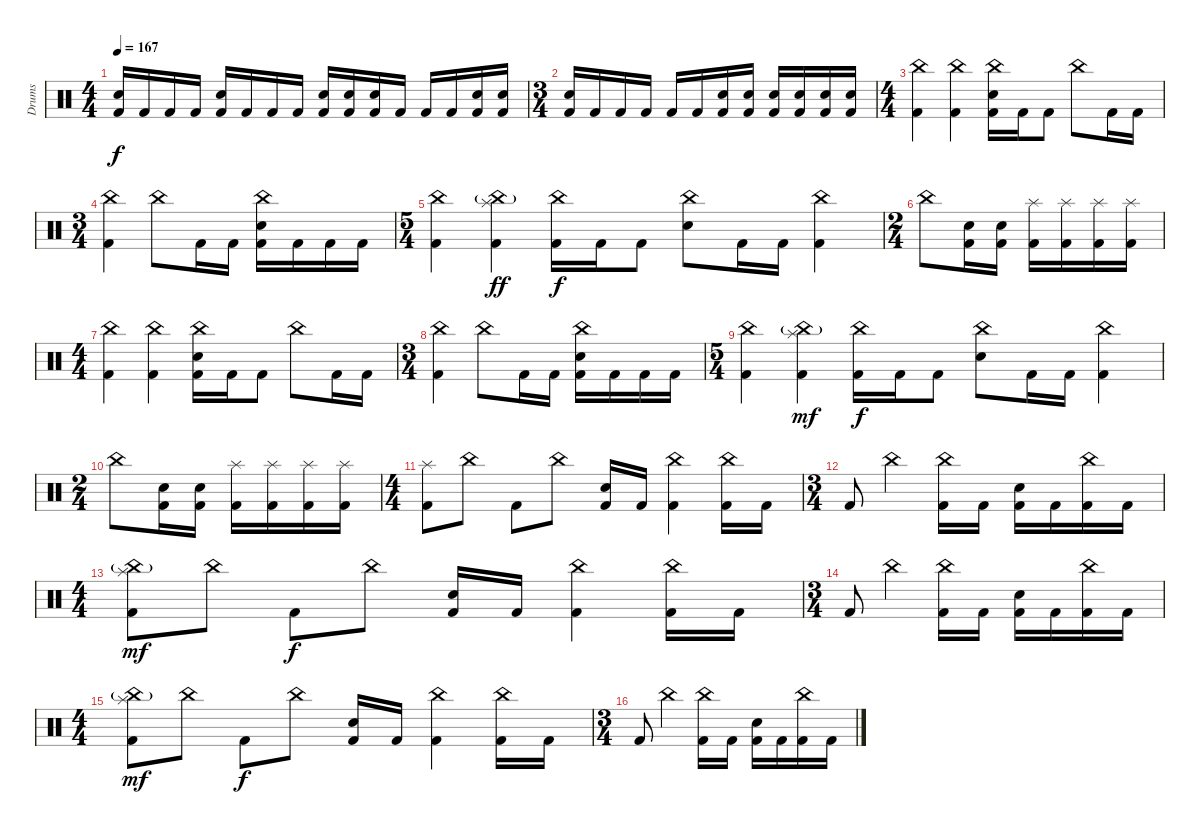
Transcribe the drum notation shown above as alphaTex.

\track ("Drums" "Drums") {instrument percussion}
\staff {score}
\articulation defaults
\ts (4 4)
\tempo 167
\clef neutral
\ks c
("Kick (hit) 2" "Electric Snare (hit)").16{dy f} "Kick (hit) 2".16 "Kick (hit) 2".16 "Kick (hit) 2".16 ("Kick (hit) 2" "Electric Snare (hit)").16 "Kick (hit) 2".16 "Kick (hit) 2".16 "Kick (hit) 2".16 ("Kick (hit) 2" "Electric Snare (hit)").16 ("Kick (hit) 2" "Electric Snare (hit)").16 ("Kick (hit) 2" "Electric Snare (hit)").16 "Kick (hit) 2".16 "Kick (hit) 2".16 "Kick (hit) 2".16 ("Kick (hit) 2" "Electric Snare (hit)").16 ("Kick (hit) 2" "Electric Snare (hit)").16 |
\ts (3 4)
("Kick (hit) 2" "Electric Snare (hit)").16 "Kick (hit) 2".16 "Kick (hit) 2".16 "Kick (hit) 2".16 "Kick (hit) 2".16 "Kick (hit) 2".16 ("Kick (hit) 2" "Electric Snare (hit)").16 ("Kick (hit) 2" "Electric Snare (hit)").16 ("Kick (hit) 2" "Electric Snare (hit)").16 ("Kick (hit) 2" "Electric Snare (hit)").16 ("Kick (hit) 2" "Electric Snare (hit)").16 ("Kick (hit) 2" "Electric Snare (hit)").16 |
\ts (4 4)
("China (hit)" "Kick (hit) 2").4 ("China (hit)" "Kick (hit) 2").4 ("China (hit)" "Kick (hit) 2" "Electric Snare (hit)").16 "Kick (hit) 2".16 "Kick (hit) 2".8 "China (hit)".8 "Kick (hit) 2".16 "Kick (hit) 2".16 |
\ts (3 4)
("China (hit)" "Kick (hit) 2").4 "China (hit)".8 "Kick (hit) 2".16 "Kick (hit) 2".16 ("China (hit)" "Kick (hit) 2" "Electric Snare (hit)").16 "Kick (hit) 2".16 "Kick (hit) 2".16 "Kick (hit) 2".16 |
\ts (5 4)
("China (hit)" "Kick (hit) 2").4 ("Splash (hit)" "China (hit)"{g} "Kick (hit) 2").4{dy ff} ("China (hit)" "Kick (hit) 2").16{dy f} "Kick (hit) 2".16 "Kick (hit) 2".8 ("China (hit)" "Electric Snare (hit)").8 "Kick (hit) 2".16 "Kick (hit) 2".16 ("China (hit)" "Kick (hit) 2").4 |
\ts (2 4)
"China (hit)".8 ("Kick (hit) 2" "Electric Snare (hit)").16 ("Kick (hit) 2" "Electric Snare (hit)").16 ("Splash (hit)" "Kick (hit) 2").16 ("Splash (hit)" "Kick (hit) 2").16 ("Splash (hit)" "Kick (hit) 2").16 ("Splash (hit)" "Kick (hit) 2").16 |
\ts (4 4)
("China (hit)" "Kick (hit) 2").4 ("China (hit)" "Kick (hit) 2").4 ("China (hit)" "Kick (hit) 2" "Electric Snare (hit)").16 "Kick (hit) 2".16 "Kick (hit) 2".8 "China (hit)".8 "Kick (hit) 2".16 "Kick (hit) 2".16 |
\ts (3 4)
("China (hit)" "Kick (hit) 2").4 "China (hit)".8 "Kick (hit) 2".16 "Kick (hit) 2".16 ("China (hit)" "Kick (hit) 2" "Electric Snare (hit)").16 "Kick (hit) 2".16 "Kick (hit) 2".16 "Kick (hit) 2".16 |
\ts (5 4)
("China (hit)" "Kick (hit) 2").4 ("Splash (hit)" "China (hit)"{g} "Kick (hit) 2").4{dy mf} ("China (hit)" "Kick (hit) 2").16{dy f} "Kick (hit) 2".16 "Kick (hit) 2".8 ("China (hit)" "Electric Snare (hit)").8 "Kick (hit) 2".16 "Kick (hit) 2".16 ("China (hit)" "Kick (hit) 2").4 |
\ts (2 4)
"China (hit)".8 ("Kick (hit) 2" "Electric Snare (hit)").16 ("Kick (hit) 2" "Electric Snare (hit)").16 ("Splash (hit)" "Kick (hit) 2").16 ("Splash (hit)" "Kick (hit) 2").16 ("Splash (hit)" "Kick (hit) 2").16 ("Splash (hit)" "Kick (hit) 2").16 |
\ts (4 4)
("Splash (hit)" "Kick (hit) 2").8 "China (hit)".8 "Kick (hit) 2".8 "China (hit)".8 ("Kick (hit) 2" "Electric Snare (hit)").16 "Kick (hit) 2".16 ("China (hit)" "Kick (hit) 2").4 ("China (hit)" "Kick (hit) 2").16 "Kick (hit) 2".16 |
\ts (3 4)
"Kick (hit) 2".8 "China (hit)".4 ("China (hit)" "Kick (hit) 2").16 "Kick (hit) 2".16 ("Kick (hit) 2" "Electric Snare (hit)").16 "Kick (hit) 2".16 ("China (hit)" "Kick (hit) 2").16 "Kick (hit) 2".16 |
\ts (4 4)
("Splash (hit)" "China (hit)"{g} "Kick (hit) 2").8{dy mf} "China (hit)".8 "Kick (hit) 2".8{dy f} "China (hit)".8 ("Kick (hit) 2" "Electric Snare (hit)").16 "Kick (hit) 2".16 ("China (hit)" "Kick (hit) 2").4 ("China (hit)" "Kick (hit) 2").16 "Kick (hit) 2".16 |
\ts (3 4)
"Kick (hit) 2".8 "China (hit)".4 ("China (hit)" "Kick (hit) 2").16 "Kick (hit) 2".16 ("Kick (hit) 2" "Electric Snare (hit)").16 "Kick (hit) 2".16 ("China (hit)" "Kick (hit) 2").16 "Kick (hit) 2".16 |
\ts (4 4)
("Splash (hit)" "China (hit)"{g} "Kick (hit) 2").8{dy mf} "China (hit)".8 "Kick (hit) 2".8{dy f} "China (hit)".8 ("Kick (hit) 2" "Electric Snare (hit)").16 "Kick (hit) 2".16 ("China (hit)" "Kick (hit) 2").4 ("China (hit)" "Kick (hit) 2").16 "Kick (hit) 2".16 |
\ts (3 4)
"Kick (hit) 2".8 "China (hit)".4 ("China (hit)" "Kick (hit) 2").16 "Kick (hit) 2".16 ("Kick (hit) 2" "Electric Snare (hit)").16 "Kick (hit) 2".16 ("China (hit)" "Kick (hit) 2").16 "Kick (hit) 2".16
